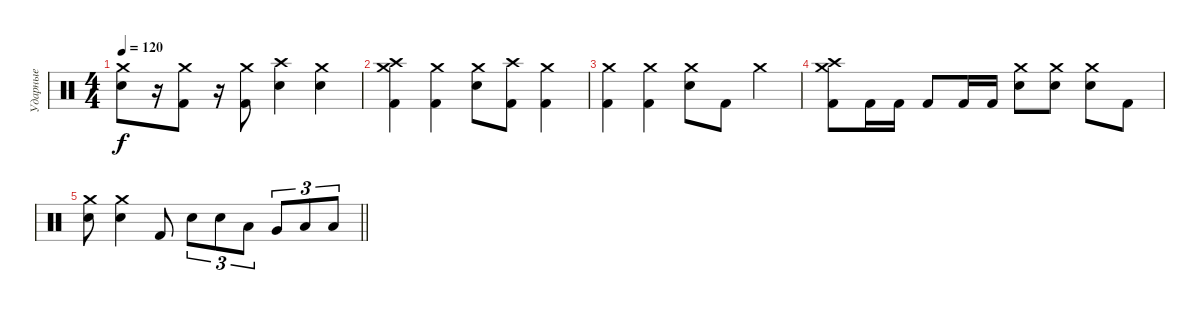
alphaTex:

\track ("Ударные" "Ударные") {instrument percussion}
\staff {score}
\articulation defaults
\ts (4 4)
\tempo 120
\clef neutral
\ks c
("Crash medium (hit)" "Snare (hit) 2").8{dy f} r.16 ("Crash medium (hit)" "Kick (hit) 2").8 r.16 ("Crash medium (hit)" "Kick (hit) 2").8 ("Crash high (hit)" "Snare (hit) 2").4 ("Crash medium (hit)" "Snare (hit) 2").4 |
("Crash medium (hit)" "Crash high (hit)" "Kick (hit) 2").4 ("Crash medium (hit)" "Kick (hit) 2").4 ("Crash medium (hit)" "Snare (hit) 2").8 ("Crash high (hit)" "Kick (hit) 2").8 ("Crash medium (hit)" "Kick (hit) 2").4 |
("Crash medium (hit)" "Kick (hit) 2").4 ("Crash medium (hit)" "Kick (hit) 2").4 ("Crash medium (hit)" "Snare (hit) 2").8 "Kick (hit) 2".8 "Crash medium (hit)".4 |
("Crash medium (hit)" "Crash high (hit)" "Kick (hit) 2").8 "Kick (hit) 2".16 "Kick (hit) 2".16 "Kick (hit) 2".8 "Kick (hit) 2".16 "Kick (hit) 2".16 ("Crash medium (hit)" "Snare (hit) 2").8 ("Crash medium (hit)" "Snare (hit) 2").8 ("Crash medium (hit)" "Snare (hit) 2").8 "Kick (hit) 2".8 |
\barLineRight lightlight
("Crash medium (hit)" "Snare (hit) 2").8 ("Crash medium (hit)" "Snare (hit) 2").4 "Kick (hit) 2".8 "Snare (hit) 2".8{tu (3 2)} "Snare (hit) 2".8{tu (3 2)} "Low Tom (hit)".8{tu (3 2)} "Very Low Tom (hit)".8{tu (3 2)} "Low Floor Tom (hit)".8{tu (3 2)} "Low Tom (hit)".8{tu (3 2)}
